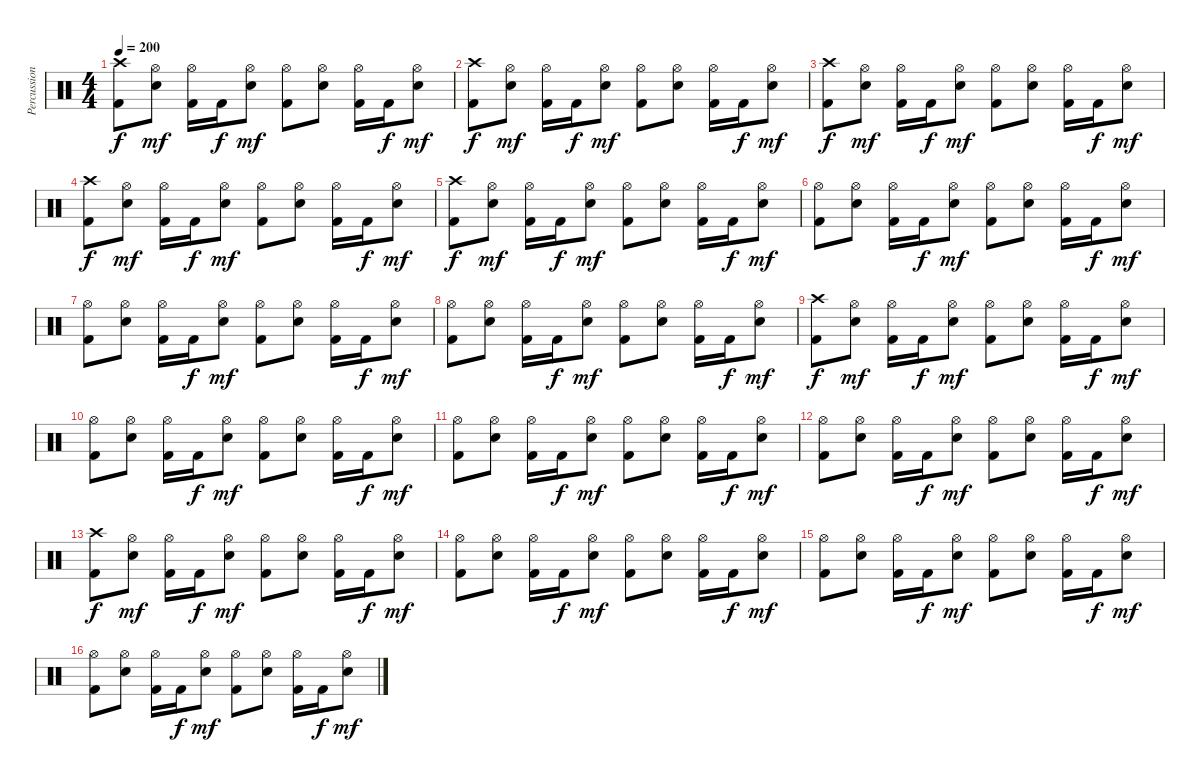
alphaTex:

\track ("Percussions" "Percussion") {instrument percussion}
\staff {score}
\articulation defaults
\ts (4 4)
\tempo 200
\clef neutral
\ks c
("Crash high (hit)" "Kick (hit) 2").8{dy f} ("Hi-Hat (open)" "Snare (hit) 2").8{dy mf} ("Hi-Hat (open)" "Kick (hit) 2").16 "Kick (hit) 2".16{dy f} ("Hi-Hat (open)" "Snare (hit) 2").8{dy mf} ("Hi-Hat (open)" "Kick (hit) 2").8 ("Hi-Hat (open)" "Snare (hit) 2").8 ("Hi-Hat (open)" "Kick (hit) 2").16 "Kick (hit) 2".16{dy f} ("Hi-Hat (open)" "Snare (hit) 2").8{dy mf} |
("Crash high (hit)" "Kick (hit) 2").8{dy f} ("Hi-Hat (open)" "Snare (hit) 2").8{dy mf} ("Hi-Hat (open)" "Kick (hit) 2").16 "Kick (hit) 2".16{dy f} ("Hi-Hat (open)" "Snare (hit) 2").8{dy mf} ("Hi-Hat (open)" "Kick (hit) 2").8 ("Hi-Hat (open)" "Snare (hit) 2").8 ("Hi-Hat (open)" "Kick (hit) 2").16 "Kick (hit) 2".16{dy f} ("Hi-Hat (open)" "Snare (hit) 2").8{dy mf} |
("Crash high (hit)" "Kick (hit) 2").8{dy f} ("Hi-Hat (open)" "Snare (hit) 2").8{dy mf} ("Hi-Hat (open)" "Kick (hit) 2").16 "Kick (hit) 2".16{dy f} ("Hi-Hat (open)" "Snare (hit) 2").8{dy mf} ("Hi-Hat (open)" "Kick (hit) 2").8 ("Hi-Hat (open)" "Snare (hit) 2").8 ("Hi-Hat (open)" "Kick (hit) 2").16 "Kick (hit) 2".16{dy f} ("Hi-Hat (open)" "Snare (hit) 2").8{dy mf} |
("Crash high (hit)" "Kick (hit) 2").8{dy f} ("Hi-Hat (open)" "Snare (hit) 2").8{dy mf} ("Hi-Hat (open)" "Kick (hit) 2").16 "Kick (hit) 2".16{dy f} ("Hi-Hat (open)" "Snare (hit) 2").8{dy mf} ("Hi-Hat (open)" "Kick (hit) 2").8 ("Hi-Hat (open)" "Snare (hit) 2").8 ("Hi-Hat (open)" "Kick (hit) 2").16 "Kick (hit) 2".16{dy f} ("Hi-Hat (open)" "Snare (hit) 2").8{dy mf} |
("Crash high (hit)" "Kick (hit) 2").8{dy f} ("Hi-Hat (open)" "Snare (hit) 2").8{dy mf} ("Hi-Hat (open)" "Kick (hit) 2").16 "Kick (hit) 2".16{dy f} ("Hi-Hat (open)" "Snare (hit) 2").8{dy mf} ("Hi-Hat (open)" "Kick (hit) 2").8 ("Hi-Hat (open)" "Snare (hit) 2").8 ("Hi-Hat (open)" "Kick (hit) 2").16 "Kick (hit) 2".16{dy f} ("Hi-Hat (open)" "Snare (hit) 2").8{dy mf} |
("Hi-Hat (open)" "Kick (hit) 2").8 ("Hi-Hat (open)" "Snare (hit) 2").8 ("Hi-Hat (open)" "Kick (hit) 2").16 "Kick (hit) 2".16{dy f} ("Hi-Hat (open)" "Snare (hit) 2").8{dy mf} ("Hi-Hat (open)" "Kick (hit) 2").8 ("Hi-Hat (open)" "Snare (hit) 2").8 ("Hi-Hat (open)" "Kick (hit) 2").16 "Kick (hit) 2".16{dy f} ("Hi-Hat (open)" "Snare (hit) 2").8{dy mf} |
("Hi-Hat (open)" "Kick (hit) 2").8 ("Hi-Hat (open)" "Snare (hit) 2").8 ("Hi-Hat (open)" "Kick (hit) 2").16 "Kick (hit) 2".16{dy f} ("Hi-Hat (open)" "Snare (hit) 2").8{dy mf} ("Hi-Hat (open)" "Kick (hit) 2").8 ("Hi-Hat (open)" "Snare (hit) 2").8 ("Hi-Hat (open)" "Kick (hit) 2").16 "Kick (hit) 2".16{dy f} ("Hi-Hat (open)" "Snare (hit) 2").8{dy mf} |
("Hi-Hat (open)" "Kick (hit) 2").8 ("Hi-Hat (open)" "Snare (hit) 2").8 ("Hi-Hat (open)" "Kick (hit) 2").16 "Kick (hit) 2".16{dy f} ("Hi-Hat (open)" "Snare (hit) 2").8{dy mf} ("Hi-Hat (open)" "Kick (hit) 2").8 ("Hi-Hat (open)" "Snare (hit) 2").8 ("Hi-Hat (open)" "Kick (hit) 2").16 "Kick (hit) 2".16{dy f} ("Hi-Hat (open)" "Snare (hit) 2").8{dy mf} |
("Crash high (hit)" "Kick (hit) 2").8{dy f} ("Hi-Hat (open)" "Snare (hit) 2").8{dy mf} ("Hi-Hat (open)" "Kick (hit) 2").16 "Kick (hit) 2".16{dy f} ("Hi-Hat (open)" "Snare (hit) 2").8{dy mf} ("Hi-Hat (open)" "Kick (hit) 2").8 ("Hi-Hat (open)" "Snare (hit) 2").8 ("Hi-Hat (open)" "Kick (hit) 2").16 "Kick (hit) 2".16{dy f} ("Hi-Hat (open)" "Snare (hit) 2").8{dy mf} |
("Hi-Hat (open)" "Kick (hit) 2").8 ("Hi-Hat (open)" "Snare (hit) 2").8 ("Hi-Hat (open)" "Kick (hit) 2").16 "Kick (hit) 2".16{dy f} ("Hi-Hat (open)" "Snare (hit) 2").8{dy mf} ("Hi-Hat (open)" "Kick (hit) 2").8 ("Hi-Hat (open)" "Snare (hit) 2").8 ("Hi-Hat (open)" "Kick (hit) 2").16 "Kick (hit) 2".16{dy f} ("Hi-Hat (open)" "Snare (hit) 2").8{dy mf} |
("Hi-Hat (open)" "Kick (hit) 2").8 ("Hi-Hat (open)" "Snare (hit) 2").8 ("Hi-Hat (open)" "Kick (hit) 2").16 "Kick (hit) 2".16{dy f} ("Hi-Hat (open)" "Snare (hit) 2").8{dy mf} ("Hi-Hat (open)" "Kick (hit) 2").8 ("Hi-Hat (open)" "Snare (hit) 2").8 ("Hi-Hat (open)" "Kick (hit) 2").16 "Kick (hit) 2".16{dy f} ("Hi-Hat (open)" "Snare (hit) 2").8{dy mf} |
("Hi-Hat (open)" "Kick (hit) 2").8 ("Hi-Hat (open)" "Snare (hit) 2").8 ("Hi-Hat (open)" "Kick (hit) 2").16 "Kick (hit) 2".16{dy f} ("Hi-Hat (open)" "Snare (hit) 2").8{dy mf} ("Hi-Hat (open)" "Kick (hit) 2").8 ("Hi-Hat (open)" "Snare (hit) 2").8 ("Hi-Hat (open)" "Kick (hit) 2").16 "Kick (hit) 2".16{dy f} ("Hi-Hat (open)" "Snare (hit) 2").8{dy mf} |
("Crash high (hit)" "Kick (hit) 2").8{dy f} ("Hi-Hat (open)" "Snare (hit) 2").8{dy mf} ("Hi-Hat (open)" "Kick (hit) 2").16 "Kick (hit) 2".16{dy f} ("Hi-Hat (open)" "Snare (hit) 2").8{dy mf} ("Hi-Hat (open)" "Kick (hit) 2").8 ("Hi-Hat (open)" "Snare (hit) 2").8 ("Hi-Hat (open)" "Kick (hit) 2").16 "Kick (hit) 2".16{dy f} ("Hi-Hat (open)" "Snare (hit) 2").8{dy mf} |
("Hi-Hat (open)" "Kick (hit) 2").8 ("Hi-Hat (open)" "Snare (hit) 2").8 ("Hi-Hat (open)" "Kick (hit) 2").16 "Kick (hit) 2".16{dy f} ("Hi-Hat (open)" "Snare (hit) 2").8{dy mf} ("Hi-Hat (open)" "Kick (hit) 2").8 ("Hi-Hat (open)" "Snare (hit) 2").8 ("Hi-Hat (open)" "Kick (hit) 2").16 "Kick (hit) 2".16{dy f} ("Hi-Hat (open)" "Snare (hit) 2").8{dy mf} |
("Hi-Hat (open)" "Kick (hit) 2").8 ("Hi-Hat (open)" "Snare (hit) 2").8 ("Hi-Hat (open)" "Kick (hit) 2").16 "Kick (hit) 2".16{dy f} ("Hi-Hat (open)" "Snare (hit) 2").8{dy mf} ("Hi-Hat (open)" "Kick (hit) 2").8 ("Hi-Hat (open)" "Snare (hit) 2").8 ("Hi-Hat (open)" "Kick (hit) 2").16 "Kick (hit) 2".16{dy f} ("Hi-Hat (open)" "Snare (hit) 2").8{dy mf} |
("Hi-Hat (open)" "Kick (hit) 2").8 ("Hi-Hat (open)" "Snare (hit) 2").8 ("Hi-Hat (open)" "Kick (hit) 2").16 "Kick (hit) 2".16{dy f} ("Hi-Hat (open)" "Snare (hit) 2").8{dy mf} ("Hi-Hat (open)" "Kick (hit) 2").8 ("Hi-Hat (open)" "Snare (hit) 2").8 ("Hi-Hat (open)" "Kick (hit) 2").16 "Kick (hit) 2".16{dy f} ("Hi-Hat (open)" "Snare (hit) 2").8{dy mf}
